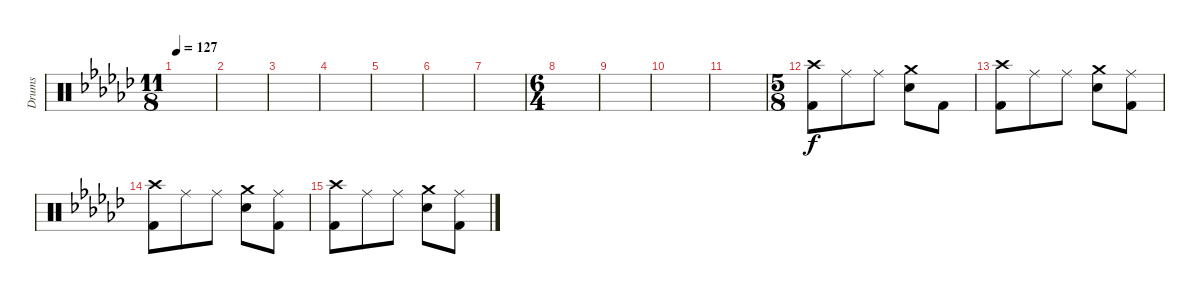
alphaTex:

\track ("Drums" "Drums") {instrument percussion}
\staff {score}
\articulation defaults
\ts (11 8)
\tempo 127
\clef neutral
\ks ebminor
|
|
|
|
|
|
|
\ts (6 4)
|
|
|
|
\ts (5 8)
("Crash high (hit)" "Kick (hit) 2").8 "Ride (middle)".8 "Ride (middle)".8 ("Crash medium (hit)" "Electric Snare (hit)").8 "Kick (hit) 2".8 |
("Crash high (hit)" "Kick (hit) 2").8 "Ride (middle)".8 "Ride (middle)".8 ("Crash medium (hit)" "Electric Snare (hit)").8 ("Ride (middle)" "Kick (hit) 2").8 |
("Crash high (hit)" "Kick (hit) 2").8 "Ride (middle)".8 "Ride (middle)".8 ("Crash medium (hit)" "Electric Snare (hit)").8 ("Ride (middle)" "Kick (hit) 2").8 |
("Crash high (hit)" "Kick (hit) 2").8 "Ride (middle)".8 "Ride (middle)".8 ("Crash medium (hit)" "Electric Snare (hit)").8 ("Ride (middle)" "Kick (hit) 2").8
